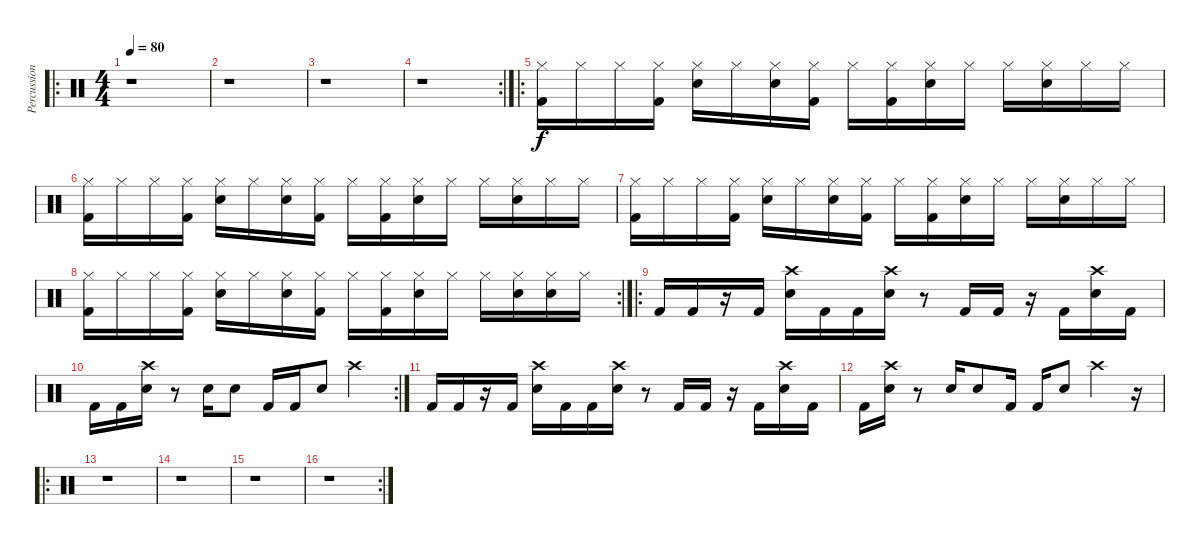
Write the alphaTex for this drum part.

\track ("Percussion" "Percussion") {instrument percussion}
\staff {score}
\articulation defaults
\ro
\ts (4 4)
\tempo 80
\clef neutral
\ks c
r.1{dy f} |
r.1 |
r.1 |
\rc 2
r.1 |
\ro
("Hi-Hat (closed)" "Kick (hit) 2").16 "Hi-Hat (closed)".16 "Hi-Hat (closed)".16 ("Hi-Hat (closed)" "Kick (hit) 2").16 ("Hi-Hat (closed)" "Snare (hit) 2").16 "Hi-Hat (closed)".16 ("Hi-Hat (closed)" "Snare (hit) 2").16 ("Hi-Hat (closed)" "Kick (hit) 2").16 "Hi-Hat (closed)".16 ("Hi-Hat (closed)" "Kick (hit) 2").16 ("Hi-Hat (closed)" "Snare (hit) 2").16 "Hi-Hat (closed)".16 "Hi-Hat (closed)".16 ("Hi-Hat (closed)" "Snare (hit) 2").16 "Hi-Hat (closed)".16 "Hi-Hat (closed)".16 |
("Hi-Hat (closed)" "Kick (hit) 2").16 "Hi-Hat (closed)".16 "Hi-Hat (closed)".16 ("Hi-Hat (closed)" "Kick (hit) 2").16 ("Hi-Hat (closed)" "Snare (hit) 2").16 "Hi-Hat (closed)".16 ("Hi-Hat (closed)" "Snare (hit) 2").16 ("Hi-Hat (closed)" "Kick (hit) 2").16 "Hi-Hat (closed)".16 ("Hi-Hat (closed)" "Kick (hit) 2").16 ("Hi-Hat (closed)" "Snare (hit) 2").16 "Hi-Hat (closed)".16 "Hi-Hat (closed)".16 ("Hi-Hat (closed)" "Snare (hit) 2").16 "Hi-Hat (closed)".16 "Hi-Hat (closed)".16 |
("Hi-Hat (closed)" "Kick (hit) 2").16 "Hi-Hat (closed)".16 "Hi-Hat (closed)".16 ("Hi-Hat (closed)" "Kick (hit) 2").16 ("Hi-Hat (closed)" "Snare (hit) 2").16 "Hi-Hat (closed)".16 ("Hi-Hat (closed)" "Snare (hit) 2").16 ("Hi-Hat (closed)" "Kick (hit) 2").16 "Hi-Hat (closed)".16 ("Hi-Hat (closed)" "Kick (hit) 2").16 ("Hi-Hat (closed)" "Snare (hit) 2").16 "Hi-Hat (closed)".16 "Hi-Hat (closed)".16 ("Hi-Hat (closed)" "Snare (hit) 2").16 "Hi-Hat (closed)".16 "Hi-Hat (closed)".16 |
\rc 2
("Hi-Hat (closed)" "Kick (hit) 2").16 "Hi-Hat (closed)".16 "Hi-Hat (closed)".16 ("Hi-Hat (closed)" "Kick (hit) 2").16 ("Hi-Hat (closed)" "Snare (hit) 2").16 "Hi-Hat (closed)".16 ("Hi-Hat (closed)" "Snare (hit) 2").16 ("Hi-Hat (closed)" "Kick (hit) 2").16 "Hi-Hat (closed)".16 ("Hi-Hat (closed)" "Kick (hit) 2").16 ("Hi-Hat (closed)" "Snare (hit) 2").16 "Hi-Hat (closed)".16 "Hi-Hat (closed)".16 ("Hi-Hat (closed)" "Snare (hit) 2").16 ("Hi-Hat (closed)" "Snare (hit) 2").16 "Hi-Hat (closed)".16 |
\ro "Kick (hit) 2".16 "Kick (hit) 2".16
r.16 "Kick (hit) 2".16 ("Crash high (hit)" "Snare (hit) 2").16 "Kick (hit) 2".16 "Kick (hit) 2".16 ("Crash high (hit)" "Snare (hit) 2").16 r.8 "Kick (hit) 2".16 "Kick (hit) 2".16 r.16 "Kick (hit) 2".16 ("Crash high (hit)" "Snare (hit) 2").16 "Kick (hit) 2".16 |
\rc 2 "Kick (hit) 2".16 "Kick (hit) 2".16
("Crash high (hit)" "Snare (hit) 2").16 r.8 "Snare (hit) 2".16 "Snare (hit) 2".8 "Kick (hit) 2".16 "Kick (hit) 2".16 "Snare (hit) 2".8 "Crash high (hit)".4 |
"Kick (hit) 2".16 "Kick (hit) 2".16 r.16 "Kick (hit) 2".16 ("Crash high (hit)" "Snare (hit) 2").16 "Kick (hit) 2".16 "Kick (hit) 2".16 ("Crash high (hit)" "Snare (hit) 2").16 r.8 "Kick (hit) 2".16 "Kick (hit) 2".16 r.16 "Kick (hit) 2".16 ("Crash high (hit)" "Snare (hit) 2").16 "Kick (hit) 2".16 |
"Kick (hit) 2".16 ("Crash high (hit)" "Snare (hit) 2").16 r.8 "Snare (hit) 2".16 "Snare (hit) 2".8 "Kick (hit) 2".16 "Kick (hit) 2".16 "Snare (hit) 2".8 "Crash high (hit)".4 r.16 |
\ro
r.1 |
r.1 |
r.1 |
\rc 2
r.1
